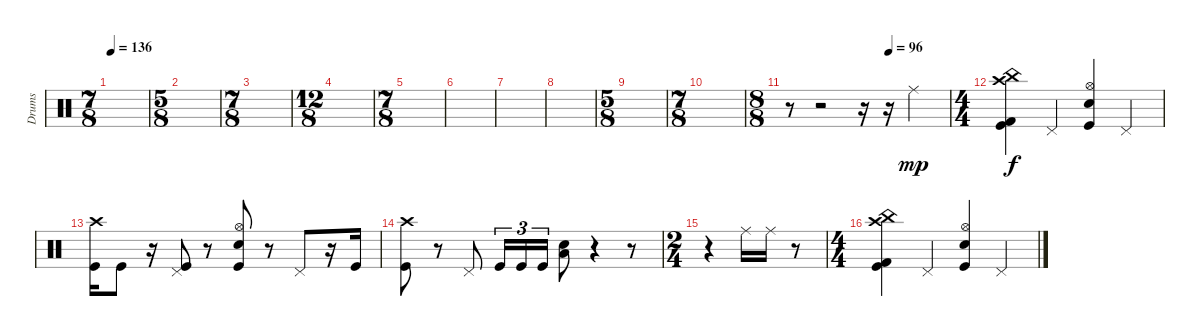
\track ("Drums" "Drums") {instrument percussion}
\staff {score}
\articulation defaults
\ts (7 8)
\tempo 136
\clef neutral
\ks c
|
\ts (5 8)
|
\ts (7 8)
|
\ts (12 8)
|
\ts (7 8)
|
|
|
|
\ts (5 8)
|
\ts (7 8)
|
\ts (8 8)
\tempo (96 0.625)
r.8 r.2 r.16 r.16 "Ride (middle)".4{dy mp} |
\ts (4 4)
("Crash high (hit)" "China (hit)" "Kick (hit) 2" "Kick (hit)").4{dy f} "Pedal Hi-Hat (hit)".4 ("Hi-Hat (open)" "Electric Snare (hit)" "Kick (hit)").4 "Pedal Hi-Hat (hit)".4 |
("Crash high (hit)" "Kick (hit)").16 "Kick (hit)".8 r.16 ("Pedal Hi-Hat (hit)" "Kick (hit)").8 r.8 ("Hi-Hat (open)" "Electric Snare (hit)" "Kick (hit)").8 r.8 "Pedal Hi-Hat (hit)".8 r.16 "Kick (hit)".16 |
("Crash high (hit)" "Kick (hit)").8 r.8 "Pedal Hi-Hat (hit)".8 "Kick (hit)".16{tu (3 2)} "Kick (hit)".16{tu (3 2)} "Kick (hit)".16{tu (3 2)} ("Electric Snare (hit)" "Low Floor Tom (hit)").8 r.4 r.8 |
\ts (2 4)
r.4 "Ride (middle)".16 "Ride (middle)".16 r.8 |
\ts (4 4)
("Crash high (hit)" "China (hit)" "Kick (hit) 2" "Kick (hit)").4 "Pedal Hi-Hat (hit)".4 ("Hi-Hat (open)" "Electric Snare (hit)" "Kick (hit)").4 "Pedal Hi-Hat (hit)".4
